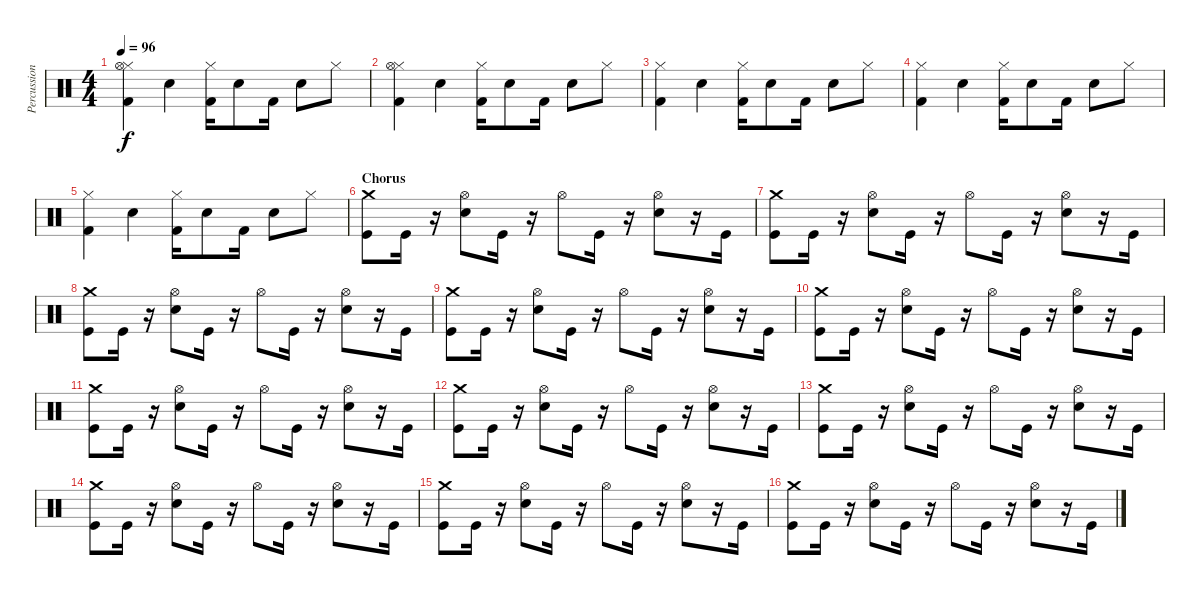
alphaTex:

\track ("Percussion" "Percussion") {instrument percussion}
\staff {score}
\articulation defaults
\ts (4 4)
\tempo 96
\clef neutral
\ks c
("Hi-Hat (closed)" "Hi-Hat (open)" "Kick (hit) 2").4{dy f} "Electric Snare (hit)".4 ("Hi-Hat (closed)" "Kick (hit) 2").16 "Electric Snare (hit)".8 "Kick (hit) 2".16 "Electric Snare (hit)".8 "Hi-Hat (closed)".8 |
("Hi-Hat (closed)" "Hi-Hat (open)" "Kick (hit) 2").4 "Electric Snare (hit)".4 ("Hi-Hat (closed)" "Kick (hit) 2").16 "Electric Snare (hit)".8 "Kick (hit) 2".16 "Electric Snare (hit)".8 "Hi-Hat (closed)".8 |
("Hi-Hat (closed)" "Kick (hit) 2").4 "Electric Snare (hit)".4 ("Hi-Hat (closed)" "Kick (hit) 2").16 "Electric Snare (hit)".8 "Kick (hit) 2".16 "Electric Snare (hit)".8 "Hi-Hat (closed)".8 |
("Hi-Hat (closed)" "Kick (hit) 2").4 "Electric Snare (hit)".4 ("Hi-Hat (closed)" "Kick (hit) 2").16 "Electric Snare (hit)".8 "Kick (hit) 2".16 "Electric Snare (hit)".8 "Hi-Hat (closed)".8 |
("Hi-Hat (closed)" "Kick (hit) 2").4 "Electric Snare (hit)".4 ("Hi-Hat (closed)" "Kick (hit) 2").16 "Electric Snare (hit)".8 "Kick (hit) 2".16 "Electric Snare (hit)".8 "Hi-Hat (closed)".8 |
\section ("" "Chorus")
("Crash medium (hit)" "Kick (hit)").8 "Kick (hit)".16 r.16 ("Hi-Hat (open)" "Electric Snare (hit)").8 "Kick (hit)".16 r.16 "Hi-Hat (open)".8 "Kick (hit)".16 r.16 ("Hi-Hat (open)" "Electric Snare (hit)").8 r.16 "Kick (hit)".16 |
("Crash medium (hit)" "Kick (hit)").8 "Kick (hit)".16 r.16 ("Hi-Hat (open)" "Electric Snare (hit)").8 "Kick (hit)".16 r.16 "Hi-Hat (open)".8 "Kick (hit)".16 r.16 ("Hi-Hat (open)" "Electric Snare (hit)").8 r.16 "Kick (hit)".16 |
("Crash medium (hit)" "Kick (hit)").8 "Kick (hit)".16 r.16 ("Hi-Hat (open)" "Electric Snare (hit)").8 "Kick (hit)".16 r.16 "Hi-Hat (open)".8 "Kick (hit)".16 r.16 ("Hi-Hat (open)" "Electric Snare (hit)").8 r.16 "Kick (hit)".16 |
("Crash medium (hit)" "Kick (hit)").8 "Kick (hit)".16 r.16 ("Hi-Hat (open)" "Electric Snare (hit)").8 "Kick (hit)".16 r.16 "Hi-Hat (open)".8 "Kick (hit)".16 r.16 ("Hi-Hat (open)" "Electric Snare (hit)").8 r.16 "Kick (hit)".16 |
("Crash medium (hit)" "Kick (hit)").8 "Kick (hit)".16 r.16 ("Hi-Hat (open)" "Electric Snare (hit)").8 "Kick (hit)".16 r.16 "Hi-Hat (open)".8 "Kick (hit)".16 r.16 ("Hi-Hat (open)" "Electric Snare (hit)").8 r.16 "Kick (hit)".16 |
("Crash medium (hit)" "Kick (hit)").8 "Kick (hit)".16 r.16 ("Hi-Hat (open)" "Electric Snare (hit)").8 "Kick (hit)".16 r.16 "Hi-Hat (open)".8 "Kick (hit)".16 r.16 ("Hi-Hat (open)" "Electric Snare (hit)").8 r.16 "Kick (hit)".16 |
("Crash medium (hit)" "Kick (hit)").8 "Kick (hit)".16 r.16 ("Hi-Hat (open)" "Electric Snare (hit)").8 "Kick (hit)".16 r.16 "Hi-Hat (open)".8 "Kick (hit)".16 r.16 ("Hi-Hat (open)" "Electric Snare (hit)").8 r.16 "Kick (hit)".16 |
("Crash medium (hit)" "Kick (hit)").8 "Kick (hit)".16 r.16 ("Hi-Hat (open)" "Electric Snare (hit)").8 "Kick (hit)".16 r.16 "Hi-Hat (open)".8 "Kick (hit)".16 r.16 ("Hi-Hat (open)" "Electric Snare (hit)").8 r.16 "Kick (hit)".16 |
("Crash medium (hit)" "Kick (hit)").8 "Kick (hit)".16 r.16 ("Hi-Hat (open)" "Electric Snare (hit)").8 "Kick (hit)".16 r.16 "Hi-Hat (open)".8 "Kick (hit)".16 r.16 ("Hi-Hat (open)" "Electric Snare (hit)").8 r.16 "Kick (hit)".16 |
("Crash medium (hit)" "Kick (hit)").8 "Kick (hit)".16 r.16 ("Hi-Hat (open)" "Electric Snare (hit)").8 "Kick (hit)".16 r.16 "Hi-Hat (open)".8 "Kick (hit)".16 r.16 ("Hi-Hat (open)" "Electric Snare (hit)").8 r.16 "Kick (hit)".16 |
("Crash medium (hit)" "Kick (hit)").8 "Kick (hit)".16 r.16 ("Hi-Hat (open)" "Electric Snare (hit)").8 "Kick (hit)".16 r.16 "Hi-Hat (open)".8 "Kick (hit)".16 r.16 ("Hi-Hat (open)" "Electric Snare (hit)").8 r.16 "Kick (hit)".16
